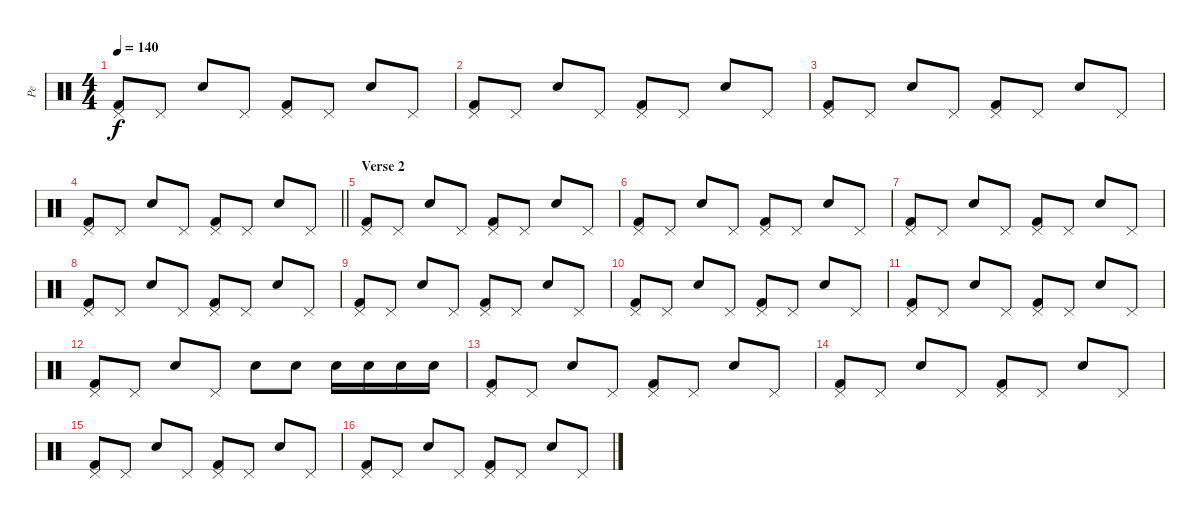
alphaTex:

\track ("Pe" "Pe") {instrument percussion}
\staff {score}
\articulation defaults
\ts (4 4)
\tempo 140
\clef neutral
\ks c
("Kick (hit) 2" "Pedal Hi-Hat (hit)").8{dy f} "Pedal Hi-Hat (hit)".8 "Snare (hit) 2".8 "Pedal Hi-Hat (hit)".8 ("Kick (hit) 2" "Pedal Hi-Hat (hit)").8 "Pedal Hi-Hat (hit)".8 "Snare (hit) 2".8 "Pedal Hi-Hat (hit)".8 |
("Kick (hit) 2" "Pedal Hi-Hat (hit)").8 "Pedal Hi-Hat (hit)".8 "Snare (hit) 2".8 "Pedal Hi-Hat (hit)".8 ("Kick (hit) 2" "Pedal Hi-Hat (hit)").8 "Pedal Hi-Hat (hit)".8 "Snare (hit) 2".8 "Pedal Hi-Hat (hit)".8 |
("Kick (hit) 2" "Pedal Hi-Hat (hit)").8 "Pedal Hi-Hat (hit)".8 "Snare (hit) 2".8 "Pedal Hi-Hat (hit)".8 ("Kick (hit) 2" "Pedal Hi-Hat (hit)").8 "Pedal Hi-Hat (hit)".8 "Snare (hit) 2".8 "Pedal Hi-Hat (hit)".8 |
\barLineRight lightlight
("Kick (hit) 2" "Pedal Hi-Hat (hit)").8 "Pedal Hi-Hat (hit)".8 "Snare (hit) 2".8 "Pedal Hi-Hat (hit)".8 ("Kick (hit) 2" "Pedal Hi-Hat (hit)").8 "Pedal Hi-Hat (hit)".8 "Snare (hit) 2".8 "Pedal Hi-Hat (hit)".8 |
\section ("" "Verse 2")
("Kick (hit) 2" "Pedal Hi-Hat (hit)").8 "Pedal Hi-Hat (hit)".8 "Snare (hit) 2".8 "Pedal Hi-Hat (hit)".8 ("Kick (hit) 2" "Pedal Hi-Hat (hit)").8 "Pedal Hi-Hat (hit)".8 "Snare (hit) 2".8 "Pedal Hi-Hat (hit)".8 |
("Kick (hit) 2" "Pedal Hi-Hat (hit)").8 "Pedal Hi-Hat (hit)".8 "Snare (hit) 2".8 "Pedal Hi-Hat (hit)".8 ("Kick (hit) 2" "Pedal Hi-Hat (hit)").8 "Pedal Hi-Hat (hit)".8 "Snare (hit) 2".8 "Pedal Hi-Hat (hit)".8 |
("Kick (hit) 2" "Pedal Hi-Hat (hit)").8 "Pedal Hi-Hat (hit)".8 "Snare (hit) 2".8 "Pedal Hi-Hat (hit)".8 ("Kick (hit) 2" "Pedal Hi-Hat (hit)").8 "Pedal Hi-Hat (hit)".8 "Snare (hit) 2".8 "Pedal Hi-Hat (hit)".8 |
("Kick (hit) 2" "Pedal Hi-Hat (hit)").8 "Pedal Hi-Hat (hit)".8 "Snare (hit) 2".8 "Pedal Hi-Hat (hit)".8 ("Kick (hit) 2" "Pedal Hi-Hat (hit)").8 "Pedal Hi-Hat (hit)".8 "Snare (hit) 2".8 "Pedal Hi-Hat (hit)".8 |
("Kick (hit) 2" "Pedal Hi-Hat (hit)").8 "Pedal Hi-Hat (hit)".8 "Snare (hit) 2".8 "Pedal Hi-Hat (hit)".8 ("Kick (hit) 2" "Pedal Hi-Hat (hit)").8 "Pedal Hi-Hat (hit)".8 "Snare (hit) 2".8 "Pedal Hi-Hat (hit)".8 |
("Kick (hit) 2" "Pedal Hi-Hat (hit)").8 "Pedal Hi-Hat (hit)".8 "Snare (hit) 2".8 "Pedal Hi-Hat (hit)".8 ("Kick (hit) 2" "Pedal Hi-Hat (hit)").8 "Pedal Hi-Hat (hit)".8 "Snare (hit) 2".8 "Pedal Hi-Hat (hit)".8 |
("Kick (hit) 2" "Pedal Hi-Hat (hit)").8 "Pedal Hi-Hat (hit)".8 "Snare (hit) 2".8 "Pedal Hi-Hat (hit)".8 ("Kick (hit) 2" "Pedal Hi-Hat (hit)").8 "Pedal Hi-Hat (hit)".8 "Snare (hit) 2".8 "Pedal Hi-Hat (hit)".8 |
("Kick (hit) 2" "Pedal Hi-Hat (hit)").8 "Pedal Hi-Hat (hit)".8 "Snare (hit) 2".8 "Pedal Hi-Hat (hit)".8 "Snare (hit) 2".8 "Snare (hit) 2".8 "Snare (hit) 2".16 "Snare (hit) 2".16 "Snare (hit) 2".16 "Snare (hit) 2".16 |
("Kick (hit) 2" "Pedal Hi-Hat (hit)").8 "Pedal Hi-Hat (hit)".8 "Snare (hit) 2".8 "Pedal Hi-Hat (hit)".8 ("Kick (hit) 2" "Pedal Hi-Hat (hit)").8 "Pedal Hi-Hat (hit)".8 "Snare (hit) 2".8 "Pedal Hi-Hat (hit)".8 |
("Kick (hit) 2" "Pedal Hi-Hat (hit)").8 "Pedal Hi-Hat (hit)".8 "Snare (hit) 2".8 "Pedal Hi-Hat (hit)".8 ("Kick (hit) 2" "Pedal Hi-Hat (hit)").8 "Pedal Hi-Hat (hit)".8 "Snare (hit) 2".8 "Pedal Hi-Hat (hit)".8 |
("Kick (hit) 2" "Pedal Hi-Hat (hit)").8 "Pedal Hi-Hat (hit)".8 "Snare (hit) 2".8 "Pedal Hi-Hat (hit)".8 ("Kick (hit) 2" "Pedal Hi-Hat (hit)").8 "Pedal Hi-Hat (hit)".8 "Snare (hit) 2".8 "Pedal Hi-Hat (hit)".8 |
("Kick (hit) 2" "Pedal Hi-Hat (hit)").8 "Pedal Hi-Hat (hit)".8 "Snare (hit) 2".8 "Pedal Hi-Hat (hit)".8 ("Kick (hit) 2" "Pedal Hi-Hat (hit)").8 "Pedal Hi-Hat (hit)".8 "Snare (hit) 2".8 "Pedal Hi-Hat (hit)".8
